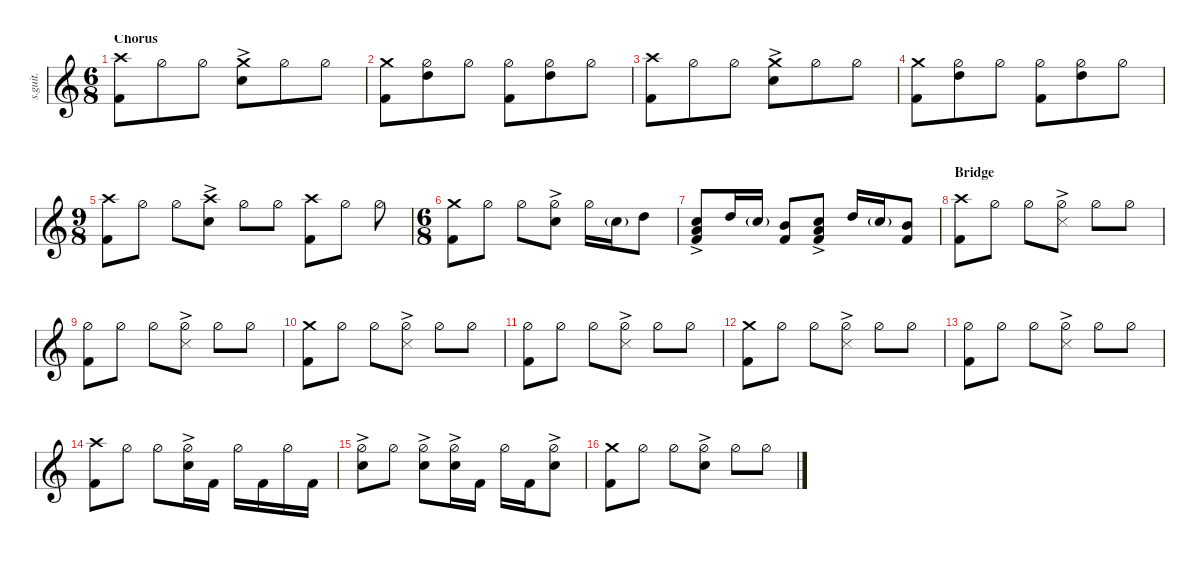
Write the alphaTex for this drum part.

\defaultSystemsLayout 4
\hideDynamics
\bracketExtendMode nobrackets
\track ("Lars Ulrich - Drums" "s.guit.") {instrument percussion}
\staff {score}
\articulation defaults
\ts (6 8)
\section ("" "Chorus")
\tempo (71 hide)
\clef g2
\ks c
("Crash high (hit)" "Kick (hit) 2").8{lyrics (0 "") lyrics (1 "") lyrics (2 "") lyrics (3 "") lyrics (4 "") dy ff} "Hi-Hat (half)".8{lyrics (0 "") lyrics (1 "") lyrics (2 "") lyrics (3 "") lyrics (4 "")} "Hi-Hat (half)".8{lyrics (0 "") lyrics (1 "") lyrics (2 "") lyrics (3 "") lyrics (4 "")} ("Crash medium (hit)"{ac} "Snare (hit) 2"{ac}).8{lyrics (0 "") lyrics (1 "") lyrics (2 "") lyrics (3 "") lyrics (4 "")} "Hi-Hat (half)".8{lyrics (0 "") lyrics (1 "") lyrics (2 "") lyrics (3 "") lyrics (4 "")} "Hi-Hat (half)".8{lyrics (0 "") lyrics (1 "") lyrics (2 "") lyrics (3 "") lyrics (4 "")} |
("Crash medium (hit)" "Kick (hit) 2").8{lyrics (0 "") lyrics (1 "") lyrics (2 "") lyrics (3 "") lyrics (4 "")} ("Hi-Hat (half)" "High Tom (hit)").8{lyrics (0 "") lyrics (1 "") lyrics (2 "") lyrics (3 "") lyrics (4 "")} "Hi-Hat (half)".8{lyrics (0 "") lyrics (1 "") lyrics (2 "") lyrics (3 "") lyrics (4 "")} ("Hi-Hat (half)" "Kick (hit) 2").8{lyrics (0 "") lyrics (1 "") lyrics (2 "") lyrics (3 "") lyrics (4 "")} ("Hi-Hat (half)" "High Tom (hit)").8{lyrics (0 "") lyrics (1 "") lyrics (2 "") lyrics (3 "") lyrics (4 "")} "Hi-Hat (half)".8{lyrics (0 "") lyrics (1 "") lyrics (2 "") lyrics (3 "") lyrics (4 "")} |
("Crash high (hit)" "Kick (hit) 2").8{lyrics (0 "") lyrics (1 "") lyrics (2 "") lyrics (3 "") lyrics (4 "")} "Hi-Hat (half)".8{lyrics (0 "") lyrics (1 "") lyrics (2 "") lyrics (3 "") lyrics (4 "")} "Hi-Hat (half)".8{lyrics (0 "") lyrics (1 "") lyrics (2 "") lyrics (3 "") lyrics (4 "")} ("Crash medium (hit)"{ac} "Snare (hit) 2"{ac}).8{lyrics (0 "") lyrics (1 "") lyrics (2 "") lyrics (3 "") lyrics (4 "")} "Hi-Hat (half)".8{lyrics (0 "") lyrics (1 "") lyrics (2 "") lyrics (3 "") lyrics (4 "")} "Hi-Hat (half)".8{lyrics (0 "") lyrics (1 "") lyrics (2 "") lyrics (3 "") lyrics (4 "")} |
("Crash medium (hit)" "Kick (hit) 2").8{lyrics (0 "") lyrics (1 "") lyrics (2 "") lyrics (3 "") lyrics (4 "")} ("Hi-Hat (half)" "High Tom (hit)").8{lyrics (0 "") lyrics (1 "") lyrics (2 "") lyrics (3 "") lyrics (4 "")} "Hi-Hat (half)".8{lyrics (0 "") lyrics (1 "") lyrics (2 "") lyrics (3 "") lyrics (4 "")} ("Hi-Hat (half)" "Kick (hit) 2").8{lyrics (0 "") lyrics (1 "") lyrics (2 "") lyrics (3 "") lyrics (4 "")} ("Hi-Hat (half)" "High Tom (hit)").8{lyrics (0 "") lyrics (1 "") lyrics (2 "") lyrics (3 "") lyrics (4 "")} "Hi-Hat (half)".8{lyrics (0 "") lyrics (1 "") lyrics (2 "") lyrics (3 "") lyrics (4 "")} |
\ts (9 8)
\beaming (8 2 2 2 2)
("Crash high (hit)" "Kick (hit) 2").8{lyrics (0 "") lyrics (1 "") lyrics (2 "") lyrics (3 "") lyrics (4 "")} "Hi-Hat (half)".8{lyrics (0 "") lyrics (1 "") lyrics (2 "") lyrics (3 "") lyrics (4 "")} "Hi-Hat (half)".8{lyrics (0 "") lyrics (1 "") lyrics (2 "") lyrics (3 "") lyrics (4 "")} ("Snare (hit) 2"{ac} "Crash high (hit)"{ac}).8{lyrics (0 "") lyrics (1 "") lyrics (2 "") lyrics (3 "") lyrics (4 "")} "Hi-Hat (half)".8{lyrics (0 "") lyrics (1 "") lyrics (2 "") lyrics (3 "") lyrics (4 "")} "Hi-Hat (half)".8{lyrics (0 "") lyrics (1 "") lyrics (2 "") lyrics (3 "") lyrics (4 "")} ("Crash high (hit)" "Kick (hit) 2").8{lyrics (0 "") lyrics (1 "") lyrics (2 "") lyrics (3 "") lyrics (4 "")} "Hi-Hat (half)".8{lyrics (0 "") lyrics (1 "") lyrics (2 "") lyrics (3 "") lyrics (4 "")} "Hi-Hat (half)".8{lyrics (0 "") lyrics (1 "") lyrics (2 "") lyrics (3 "") lyrics (4 "")} |
\ts (6 8)
\beaming (8 2 2 2 2)
("Crash medium (hit)" "Kick (hit) 2").8{lyrics (0 "") lyrics (1 "") lyrics (2 "") lyrics (3 "") lyrics (4 "")} "Hi-Hat (half)".8{lyrics (0 "") lyrics (1 "") lyrics (2 "") lyrics (3 "") lyrics (4 "")} "Hi-Hat (half)".8{lyrics (0 "") lyrics (1 "") lyrics (2 "") lyrics (3 "") lyrics (4 "")} ("Hi-Hat (half)"{ac} "Snare (hit) 2"{ac}).8{lyrics (0 "") lyrics (1 "") lyrics (2 "") lyrics (3 "") lyrics (4 "")} "Hi-Hat (half)".16{lyrics (0 "") lyrics (1 "") lyrics (2 "") lyrics (3 "") lyrics (4 "")} "Snare (hit) 2"{g}.16{lyrics (0 "") lyrics (1 "") lyrics (2 "") lyrics (3 "") lyrics (4 "")} "High Tom (hit)".8{lyrics (0 "") lyrics (1 "") lyrics (2 "") lyrics (3 "") lyrics (4 "")} |
("Snare (hit) 2"{ac} "Kick (hit) 2"{ac} "Low Floor Tom (hit)"{ac}).8{lyrics (0 "") lyrics (1 "") lyrics (2 "") lyrics (3 "") lyrics (4 "")} "High Tom (hit)".16{lyrics (0 "") lyrics (1 "") lyrics (2 "") lyrics (3 "") lyrics (4 "")} "Snare (hit) 2"{g}.16{lyrics (0 "") lyrics (1 "") lyrics (2 "") lyrics (3 "") lyrics (4 "")} ("Kick (hit) 2" "Mid Tom (hit)").8{lyrics (0 "") lyrics (1 "") lyrics (2 "") lyrics (3 "") lyrics (4 "")} ("Snare (hit) 2"{ac} "Kick (hit) 2"{ac} "Low Floor Tom (hit)"{ac}).8{lyrics (0 "") lyrics (1 "") lyrics (2 "") lyrics (3 "") lyrics (4 "")} "High Tom (hit)".16{lyrics (0 "") lyrics (1 "") lyrics (2 "") lyrics (3 "") lyrics (4 "")} "Snare (hit) 2"{g}.16{lyrics (0 "") lyrics (1 "") lyrics (2 "") lyrics (3 "") lyrics (4 "")} ("Kick (hit) 2" "Mid Tom (hit)").8{lyrics (0 "") lyrics (1 "") lyrics (2 "") lyrics (3 "") lyrics (4 "")} |
\section ("" "Bridge")
("Crash high (hit)" "Kick (hit) 2").8{lyrics (0 "") lyrics (1 "") lyrics (2 "") lyrics (3 "") lyrics (4 "")} "Hi-Hat (half)".8{lyrics (0 "") lyrics (1 "") lyrics (2 "") lyrics (3 "") lyrics (4 "")} "Hi-Hat (half)".8{lyrics (0 "") lyrics (1 "") lyrics (2 "") lyrics (3 "") lyrics (4 "")} ("Hi-Hat (half)"{ac} "Snare (side stick) 3"{ac}).8{lyrics (0 "") lyrics (1 "") lyrics (2 "") lyrics (3 "") lyrics (4 "")} "Hi-Hat (half)".8{lyrics (0 "") lyrics (1 "") lyrics (2 "") lyrics (3 "") lyrics (4 "")} "Hi-Hat (half)".8{lyrics (0 "") lyrics (1 "") lyrics (2 "") lyrics (3 "") lyrics (4 "")} |
("Hi-Hat (half)" "Kick (hit) 2").8{lyrics (0 "") lyrics (1 "") lyrics (2 "") lyrics (3 "") lyrics (4 "")} "Hi-Hat (half)".8{lyrics (0 "") lyrics (1 "") lyrics (2 "") lyrics (3 "") lyrics (4 "")} "Hi-Hat (half)".8{lyrics (0 "") lyrics (1 "") lyrics (2 "") lyrics (3 "") lyrics (4 "")} ("Hi-Hat (half)"{ac} "Snare (side stick) 3"{ac}).8{lyrics (0 "") lyrics (1 "") lyrics (2 "") lyrics (3 "") lyrics (4 "")} "Hi-Hat (half)".8{lyrics (0 "") lyrics (1 "") lyrics (2 "") lyrics (3 "") lyrics (4 "")} "Hi-Hat (half)".8{lyrics (0 "") lyrics (1 "") lyrics (2 "") lyrics (3 "") lyrics (4 "")} |
("Crash medium (hit)" "Kick (hit) 2").8{lyrics (0 "") lyrics (1 "") lyrics (2 "") lyrics (3 "") lyrics (4 "")} "Hi-Hat (half)".8{lyrics (0 "") lyrics (1 "") lyrics (2 "") lyrics (3 "") lyrics (4 "")} "Hi-Hat (half)".8{lyrics (0 "") lyrics (1 "") lyrics (2 "") lyrics (3 "") lyrics (4 "")} ("Hi-Hat (half)"{ac} "Snare (side stick) 3"{ac}).8{lyrics (0 "") lyrics (1 "") lyrics (2 "") lyrics (3 "") lyrics (4 "")} "Hi-Hat (half)".8{lyrics (0 "") lyrics (1 "") lyrics (2 "") lyrics (3 "") lyrics (4 "")} "Hi-Hat (half)".8{lyrics (0 "") lyrics (1 "") lyrics (2 "") lyrics (3 "") lyrics (4 "")} |
("Hi-Hat (half)" "Kick (hit) 2").8{lyrics (0 "") lyrics (1 "") lyrics (2 "") lyrics (3 "") lyrics (4 "")} "Hi-Hat (half)".8{lyrics (0 "") lyrics (1 "") lyrics (2 "") lyrics (3 "") lyrics (4 "")} "Hi-Hat (half)".8{lyrics (0 "") lyrics (1 "") lyrics (2 "") lyrics (3 "") lyrics (4 "")} ("Hi-Hat (half)"{ac} "Snare (side stick) 3"{ac}).8{lyrics (0 "") lyrics (1 "") lyrics (2 "") lyrics (3 "") lyrics (4 "")} "Hi-Hat (half)".8{lyrics (0 "") lyrics (1 "") lyrics (2 "") lyrics (3 "") lyrics (4 "")} "Hi-Hat (half)".8{lyrics (0 "") lyrics (1 "") lyrics (2 "") lyrics (3 "") lyrics (4 "")} |
("Crash medium (hit)" "Kick (hit) 2").8{lyrics (0 "") lyrics (1 "") lyrics (2 "") lyrics (3 "") lyrics (4 "")} "Hi-Hat (half)".8{lyrics (0 "") lyrics (1 "") lyrics (2 "") lyrics (3 "") lyrics (4 "")} "Hi-Hat (half)".8{lyrics (0 "") lyrics (1 "") lyrics (2 "") lyrics (3 "") lyrics (4 "")} ("Hi-Hat (half)"{ac} "Snare (side stick) 3"{ac}).8{lyrics (0 "") lyrics (1 "") lyrics (2 "") lyrics (3 "") lyrics (4 "")} "Hi-Hat (half)".8{lyrics (0 "") lyrics (1 "") lyrics (2 "") lyrics (3 "") lyrics (4 "")} "Hi-Hat (half)".8{lyrics (0 "") lyrics (1 "") lyrics (2 "") lyrics (3 "") lyrics (4 "")} |
("Hi-Hat (half)" "Kick (hit) 2").8{lyrics (0 "") lyrics (1 "") lyrics (2 "") lyrics (3 "") lyrics (4 "")} "Hi-Hat (half)".8{lyrics (0 "") lyrics (1 "") lyrics (2 "") lyrics (3 "") lyrics (4 "")} "Hi-Hat (half)".8{lyrics (0 "") lyrics (1 "") lyrics (2 "") lyrics (3 "") lyrics (4 "")} ("Hi-Hat (half)"{ac} "Snare (side stick) 3"{ac}).8{lyrics (0 "") lyrics (1 "") lyrics (2 "") lyrics (3 "") lyrics (4 "")} "Hi-Hat (half)".8{lyrics (0 "") lyrics (1 "") lyrics (2 "") lyrics (3 "") lyrics (4 "")} "Hi-Hat (half)".8{lyrics (0 "") lyrics (1 "") lyrics (2 "") lyrics (3 "") lyrics (4 "")} |
("Crash high (hit)" "Kick (hit) 2").8{lyrics (0 "") lyrics (1 "") lyrics (2 "") lyrics (3 "") lyrics (4 "")} "Hi-Hat (half)".8{lyrics (0 "") lyrics (1 "") lyrics (2 "") lyrics (3 "") lyrics (4 "")} "Hi-Hat (half)".8{lyrics (0 "") lyrics (1 "") lyrics (2 "") lyrics (3 "") lyrics (4 "")} ("Hi-Hat (half)"{ac} "Snare (hit) 2"{ac}).16{lyrics (0 "") lyrics (1 "") lyrics (2 "") lyrics (3 "") lyrics (4 "")} "Kick (hit) 2".16{lyrics (0 "") lyrics (1 "") lyrics (2 "") lyrics (3 "") lyrics (4 "")} "Hi-Hat (half)".16{lyrics (0 "") lyrics (1 "") lyrics (2 "") lyrics (3 "") lyrics (4 "")} "Kick (hit) 2".16{lyrics (0 "") lyrics (1 "") lyrics (2 "") lyrics (3 "") lyrics (4 "")} "Hi-Hat (half)".16{lyrics (0 "") lyrics (1 "") lyrics (2 "") lyrics (3 "") lyrics (4 "")} "Kick (hit) 2".16{lyrics (0 "") lyrics (1 "") lyrics (2 "") lyrics (3 "") lyrics (4 "")} |
("Hi-Hat (half)"{ac} "Snare (hit) 2"{ac}).8{lyrics (0 "") lyrics (1 "") lyrics (2 "") lyrics (3 "") lyrics (4 "")} "Hi-Hat (half)".8{lyrics (0 "") lyrics (1 "") lyrics (2 "") lyrics (3 "") lyrics (4 "")} ("Hi-Hat (half)"{ac} "Snare (hit) 2"{ac}).8{lyrics (0 "") lyrics (1 "") lyrics (2 "") lyrics (3 "") lyrics (4 "")} ("Hi-Hat (half)"{ac} "Snare (hit) 2"{ac}).16{lyrics (0 "") lyrics (1 "") lyrics (2 "") lyrics (3 "") lyrics (4 "")} "Kick (hit) 2".16{lyrics (0 "") lyrics (1 "") lyrics (2 "") lyrics (3 "") lyrics (4 "")} "Hi-Hat (half)".16{lyrics (0 "") lyrics (1 "") lyrics (2 "") lyrics (3 "") lyrics (4 "")} "Kick (hit) 2".16{lyrics (0 "") lyrics (1 "") lyrics (2 "") lyrics (3 "") lyrics (4 "")} ("Hi-Hat (half)"{ac} "Snare (hit) 2"{ac}).8{lyrics (0 "") lyrics (1 "") lyrics (2 "") lyrics (3 "") lyrics (4 "")} |
("Crash medium (hit)" "Kick (hit) 2").8{lyrics (0 "") lyrics (1 "") lyrics (2 "") lyrics (3 "") lyrics (4 "")} "Hi-Hat (half)".8{lyrics (0 "") lyrics (1 "") lyrics (2 "") lyrics (3 "") lyrics (4 "")} "Hi-Hat (half)".8{lyrics (0 "") lyrics (1 "") lyrics (2 "") lyrics (3 "") lyrics (4 "")} ("Hi-Hat (half)"{ac} "Snare (hit) 2"{ac}).8{lyrics (0 "") lyrics (1 "") lyrics (2 "") lyrics (3 "") lyrics (4 "")} "Hi-Hat (half)".8{lyrics (0 "") lyrics (1 "") lyrics (2 "") lyrics (3 "") lyrics (4 "")} "Hi-Hat (half)".8{lyrics (0 "") lyrics (1 "") lyrics (2 "") lyrics (3 "") lyrics (4 "")}
